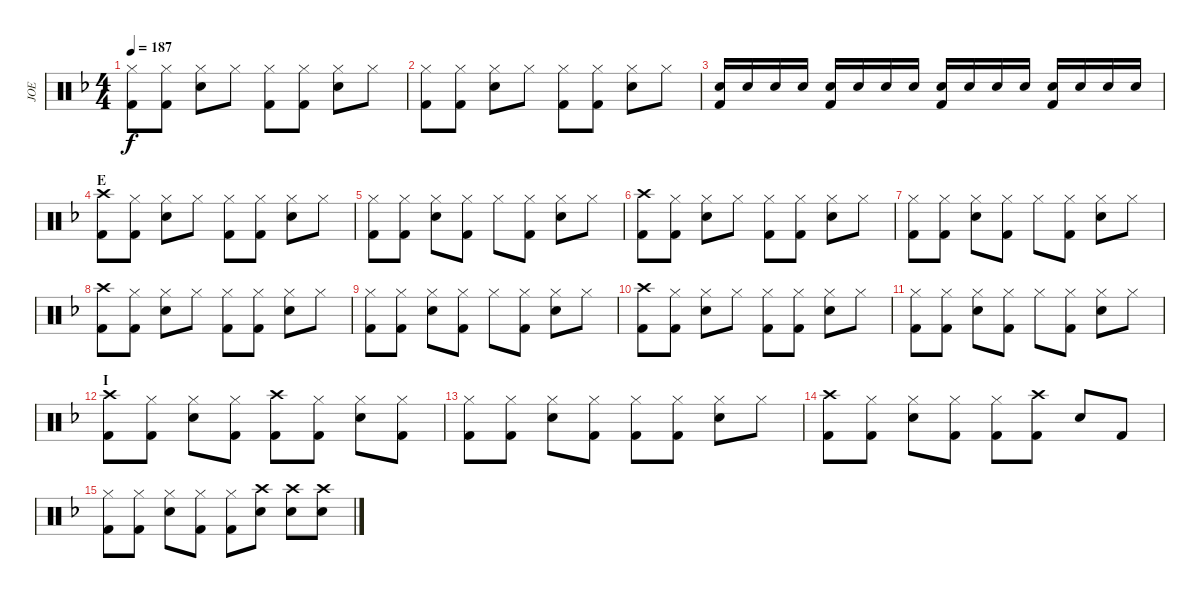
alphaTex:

\track ("JOE" "JOE") {instrument percussion}
\staff {score}
\articulation defaults
\ts (4 4)
\tempo 187
\clef neutral
\ks dminor
("Hi-Hat (closed)" "Kick (hit) 2").8{dy f} ("Hi-Hat (closed)" "Kick (hit) 2").8 ("Hi-Hat (closed)" "Snare (hit) 2").8 "Hi-Hat (closed)".8 ("Hi-Hat (closed)" "Kick (hit) 2").8 ("Hi-Hat (closed)" "Kick (hit) 2").8 ("Hi-Hat (closed)" "Snare (hit) 2").8 "Hi-Hat (closed)".8 |
("Hi-Hat (closed)" "Kick (hit) 2").8 ("Hi-Hat (closed)" "Kick (hit) 2").8 ("Hi-Hat (closed)" "Snare (hit) 2").8 "Hi-Hat (closed)".8 ("Hi-Hat (closed)" "Kick (hit) 2").8 ("Hi-Hat (closed)" "Kick (hit) 2").8 ("Hi-Hat (closed)" "Snare (hit) 2").8 "Hi-Hat (closed)".8 |
("Snare (hit) 2" "Kick (hit) 2").16 "Snare (hit) 2".16 "Snare (hit) 2".16 "Snare (hit) 2".16 ("Snare (hit) 2" "Kick (hit) 2").16 "Snare (hit) 2".16 "Snare (hit) 2".16 "Snare (hit) 2".16 ("Snare (hit) 2" "Kick (hit) 2").16 "Snare (hit) 2".16 "Snare (hit) 2".16 "Snare (hit) 2".16 ("Snare (hit) 2" "Kick (hit) 2").16 "Snare (hit) 2".16 "Snare (hit) 2".16 "Snare (hit) 2".16 |
\section ("" "E")
("Crash high (hit)" "Kick (hit) 2").8 ("Hi-Hat (closed)" "Kick (hit) 2").8 ("Hi-Hat (closed)" "Snare (hit) 2").8 "Hi-Hat (closed)".8 ("Hi-Hat (closed)" "Kick (hit) 2").8 ("Hi-Hat (closed)" "Kick (hit) 2").8 ("Hi-Hat (closed)" "Snare (hit) 2").8 "Hi-Hat (closed)".8 |
("Hi-Hat (closed)" "Kick (hit) 2").8 ("Hi-Hat (closed)" "Kick (hit) 2").8 ("Hi-Hat (closed)" "Snare (hit) 2").8 ("Hi-Hat (closed)" "Kick (hit) 2").8 "Hi-Hat (closed)".8 ("Hi-Hat (closed)" "Kick (hit) 2").8 ("Hi-Hat (closed)" "Snare (hit) 2").8 "Hi-Hat (closed)".8 |
("Crash high (hit)" "Kick (hit) 2").8 ("Hi-Hat (closed)" "Kick (hit) 2").8 ("Hi-Hat (closed)" "Snare (hit) 2").8 "Hi-Hat (closed)".8 ("Hi-Hat (closed)" "Kick (hit) 2").8 ("Hi-Hat (closed)" "Kick (hit) 2").8 ("Hi-Hat (closed)" "Snare (hit) 2").8 "Hi-Hat (closed)".8 |
("Hi-Hat (closed)" "Kick (hit) 2").8 ("Hi-Hat (closed)" "Kick (hit) 2").8 ("Hi-Hat (closed)" "Snare (hit) 2").8 ("Hi-Hat (closed)" "Kick (hit) 2").8 "Hi-Hat (closed)".8 ("Hi-Hat (closed)" "Kick (hit) 2").8 ("Hi-Hat (closed)" "Snare (hit) 2").8 "Hi-Hat (closed)".8 |
("Crash high (hit)" "Kick (hit) 2").8 ("Hi-Hat (closed)" "Kick (hit) 2").8 ("Hi-Hat (closed)" "Snare (hit) 2").8 "Hi-Hat (closed)".8 ("Hi-Hat (closed)" "Kick (hit) 2").8 ("Hi-Hat (closed)" "Kick (hit) 2").8 ("Hi-Hat (closed)" "Snare (hit) 2").8 "Hi-Hat (closed)".8 |
("Hi-Hat (closed)" "Kick (hit) 2").8 ("Hi-Hat (closed)" "Kick (hit) 2").8 ("Hi-Hat (closed)" "Snare (hit) 2").8 ("Hi-Hat (closed)" "Kick (hit) 2").8 "Hi-Hat (closed)".8 ("Hi-Hat (closed)" "Kick (hit) 2").8 ("Hi-Hat (closed)" "Snare (hit) 2").8 "Hi-Hat (closed)".8 |
("Crash high (hit)" "Kick (hit) 2").8 ("Hi-Hat (closed)" "Kick (hit) 2").8 ("Hi-Hat (closed)" "Snare (hit) 2").8 "Hi-Hat (closed)".8 ("Hi-Hat (closed)" "Kick (hit) 2").8 ("Hi-Hat (closed)" "Kick (hit) 2").8 ("Hi-Hat (closed)" "Snare (hit) 2").8 "Hi-Hat (closed)".8 |
("Hi-Hat (closed)" "Kick (hit) 2").8 ("Hi-Hat (closed)" "Kick (hit) 2").8 ("Hi-Hat (closed)" "Snare (hit) 2").8 ("Hi-Hat (closed)" "Kick (hit) 2").8 "Hi-Hat (closed)".8 ("Hi-Hat (closed)" "Kick (hit) 2").8 ("Hi-Hat (closed)" "Snare (hit) 2").8 "Hi-Hat (closed)".8 |
\section ("" "I")
("Crash high (hit)" "Kick (hit) 2").8 ("Hi-Hat (closed)" "Kick (hit) 2").8 ("Hi-Hat (closed)" "Snare (hit) 2").8 ("Hi-Hat (closed)" "Kick (hit) 2").8 ("Crash high (hit)" "Kick (hit) 2").8 ("Hi-Hat (closed)" "Kick (hit) 2").8 ("Hi-Hat (closed)" "Snare (hit) 2").8 ("Hi-Hat (closed)" "Kick (hit) 2").8 |
("Hi-Hat (closed)" "Kick (hit) 2").8 ("Hi-Hat (closed)" "Kick (hit) 2").8 ("Hi-Hat (closed)" "Snare (hit) 2").8 ("Hi-Hat (closed)" "Kick (hit) 2").8 ("Hi-Hat (closed)" "Kick (hit) 2").8 ("Hi-Hat (closed)" "Kick (hit) 2").8 ("Hi-Hat (closed)" "Snare (hit) 2").8 "Hi-Hat (closed)".8 |
("Crash high (hit)" "Kick (hit) 2").8 ("Hi-Hat (closed)" "Kick (hit) 2").8 ("Hi-Hat (closed)" "Snare (hit) 2").8 ("Hi-Hat (closed)" "Kick (hit) 2").8 ("Hi-Hat (closed)" "Kick (hit) 2").8 ("Crash high (hit)" "Kick (hit) 2").8 "Snare (hit) 2".8 "Kick (hit) 2".8 |
("Hi-Hat (closed)" "Kick (hit) 2").8 ("Hi-Hat (closed)" "Kick (hit) 2").8 ("Hi-Hat (closed)" "Snare (hit) 2").8 ("Hi-Hat (closed)" "Kick (hit) 2").8 ("Hi-Hat (closed)" "Kick (hit) 2").8 ("Crash high (hit)" "Snare (hit) 2").8 ("Crash high (hit)" "Snare (hit) 2").8 ("Crash high (hit)" "Snare (hit) 2").8
